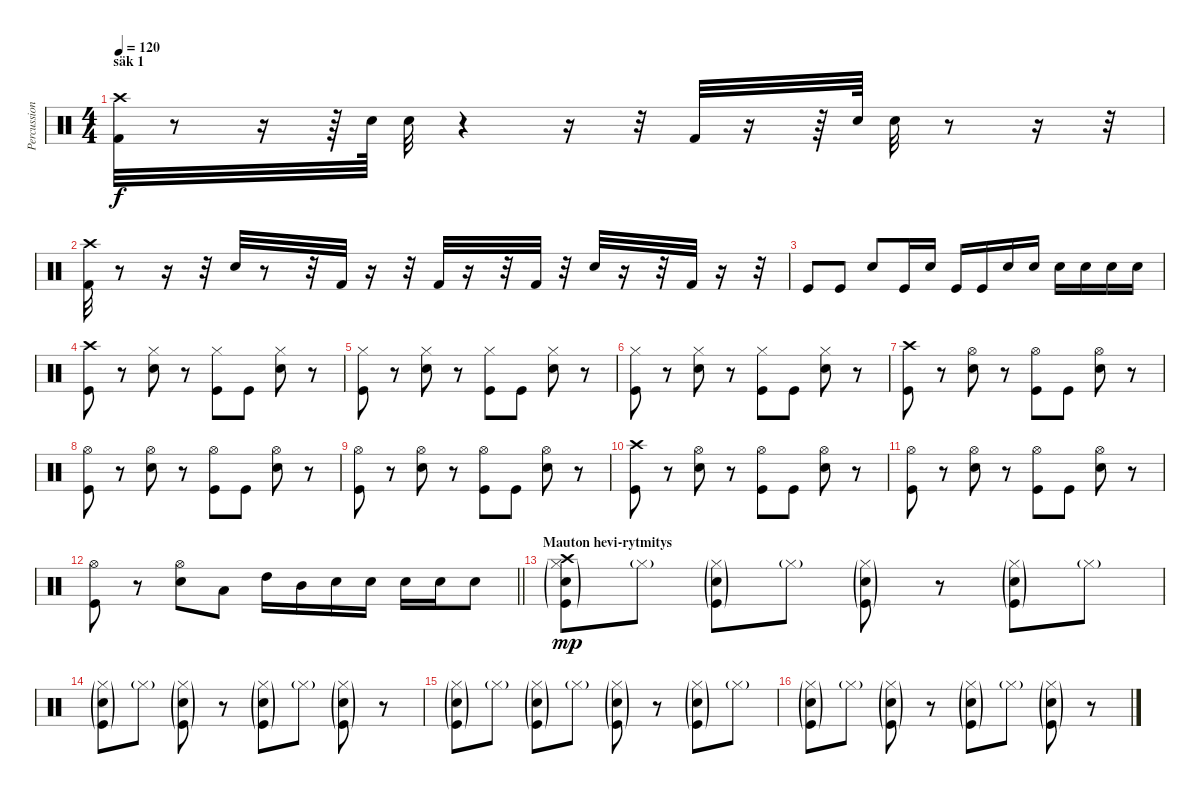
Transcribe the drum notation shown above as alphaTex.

\track ("Percussion" "Percussion") {instrument percussion}
\staff {score}
\articulation defaults
\ts (4 4)
\section ("" "säk 1")
\tempo 120
\clef neutral
\ks c
("Kick (hit) 2" "Crash high (hit)").32{dy f} r.8 r.16 r.64 "Snare (hit) 2".64 "Snare (hit) 2".32 r.4 r.16 r.32 "Kick (hit) 2".32 r.16 r.64 "Snare (hit) 2".64 "Snare (hit) 2".32 r.8 r.16 r.32 |
("Kick (hit) 2" "Crash high (hit)").32 r.8 r.16 r.32 "Snare (hit) 2".32 r.8 r.32 "Kick (hit) 2".32 r.16 r.32 "Kick (hit) 2".32 r.16 r.32 "Kick (hit) 2".32 r.32 "Snare (hit) 2".32 r.16 r.32 "Kick (hit) 2".32 r.16 r.32 |
"Kick (hit)".8 "Kick (hit)".8 "Snare (hit) 2".8 "Kick (hit)".16 "Snare (hit) 2".16 "Kick (hit)".16 "Kick (hit)".16 "Snare (hit) 2".16 "Snare (hit) 2".16 "Snare (hit) 2".16 "Snare (hit) 2".16 "Snare (hit) 2".16 "Snare (hit) 2".16 |
("Crash high (hit)" "Kick (hit)").8 r.8 ("Hi-Hat (closed)" "Snare (hit) 2").8 r.8 ("Hi-Hat (closed)" "Kick (hit)").8 "Kick (hit)".8 ("Hi-Hat (closed)" "Snare (hit) 2").8 r.8 |
("Hi-Hat (closed)" "Kick (hit)").8 r.8 ("Hi-Hat (closed)" "Snare (hit) 2").8 r.8 ("Hi-Hat (closed)" "Kick (hit)").8 "Kick (hit)".8 ("Hi-Hat (closed)" "Snare (hit) 2").8 r.8 |
("Hi-Hat (closed)" "Kick (hit)").8 r.8 ("Hi-Hat (closed)" "Snare (hit) 2").8 r.8 ("Hi-Hat (closed)" "Kick (hit)").8 "Kick (hit)".8 ("Hi-Hat (closed)" "Snare (hit) 2").8 r.8 |
("Crash high (hit)" "Kick (hit)").8 r.8 ("Hi-Hat (open)" "Snare (hit) 2").8 r.8 ("Hi-Hat (open)" "Kick (hit)").8 "Kick (hit)".8 ("Hi-Hat (open)" "Snare (hit) 2").8 r.8 |
("Hi-Hat (open)" "Kick (hit)").8 r.8 ("Hi-Hat (open)" "Snare (hit) 2").8 r.8 ("Hi-Hat (open)" "Kick (hit)").8 "Kick (hit)".8 ("Hi-Hat (open)" "Snare (hit) 2").8 r.8 |
("Hi-Hat (open)" "Kick (hit)").8 r.8 ("Hi-Hat (open)" "Snare (hit) 2").8 r.8 ("Hi-Hat (open)" "Kick (hit)").8 "Kick (hit)".8 ("Hi-Hat (open)" "Snare (hit) 2").8 r.8 |
("Crash high (hit)" "Kick (hit)").8 r.8 ("Hi-Hat (open)" "Snare (hit) 2").8 r.8 ("Hi-Hat (open)" "Kick (hit)").8 "Kick (hit)".8 ("Hi-Hat (open)" "Snare (hit) 2").8 r.8 |
("Hi-Hat (open)" "Kick (hit)").8 r.8 ("Hi-Hat (open)" "Snare (hit) 2").8 r.8 ("Hi-Hat (open)" "Kick (hit)").8 "Kick (hit)".8 ("Hi-Hat (open)" "Snare (hit) 2").8 r.8 |
\barLineRight lightlight
("Hi-Hat (open)" "Kick (hit)").8 r.8 ("Hi-Hat (open)" "Snare (hit) 2").8 "Low Tom (hit)".8 "High Tom (hit)".16 "Mid Tom (hit)".16 "Snare (hit) 2".16 "Snare (hit) 2".16 "Snare (hit) 2".16 "Snare (hit) 2".16 "Snare (hit) 2".8 |
\section ("" "Mauton hevi-rytmitys")
("Crash high (hit)" "Snare (hit) 2"{g} "Kick (hit)"{g} "Hi-Hat (closed)"{g}).8{dy mp} "Hi-Hat (closed)"{g}.8 ("Snare (hit) 2"{g} "Kick (hit)"{g} "Hi-Hat (closed)"{g}).8 "Hi-Hat (closed)"{g}.8 ("Snare (hit) 2"{g} "Kick (hit)"{g} "Hi-Hat (closed)"{g}).8 r.8 ("Snare (hit) 2"{g} "Kick (hit)"{g} "Hi-Hat (closed)"{g}).8 "Hi-Hat (closed)"{g}.8 |
("Snare (hit) 2"{g} "Kick (hit)"{g} "Hi-Hat (closed)"{g}).8 "Hi-Hat (closed)"{g}.8 ("Snare (hit) 2"{g} "Kick (hit)"{g} "Hi-Hat (closed)"{g}).8 r.8 ("Snare (hit) 2"{g} "Kick (hit)"{g} "Hi-Hat (closed)"{g}).8 "Hi-Hat (closed)"{g}.8 ("Snare (hit) 2"{g} "Kick (hit)"{g} "Hi-Hat (closed)"{g}).8 r.8 |
("Snare (hit) 2"{g} "Kick (hit)"{g} "Hi-Hat (closed)"{g}).8 "Hi-Hat (closed)"{g}.8 ("Snare (hit) 2"{g} "Kick (hit)"{g} "Hi-Hat (closed)"{g}).8 "Hi-Hat (closed)"{g}.8 ("Snare (hit) 2"{g} "Kick (hit)"{g} "Hi-Hat (closed)"{g}).8 r.8 ("Snare (hit) 2"{g} "Kick (hit)"{g} "Hi-Hat (closed)"{g}).8 "Hi-Hat (closed)"{g}.8 |
("Snare (hit) 2"{g} "Kick (hit)"{g} "Hi-Hat (closed)"{g}).8 "Hi-Hat (closed)"{g}.8 ("Snare (hit) 2"{g} "Kick (hit)"{g} "Hi-Hat (closed)"{g}).8 r.8 ("Snare (hit) 2"{g} "Kick (hit)"{g} "Hi-Hat (closed)"{g}).8 "Hi-Hat (closed)"{g}.8 ("Snare (hit) 2"{g} "Kick (hit)"{g} "Hi-Hat (closed)"{g}).8 r.8
